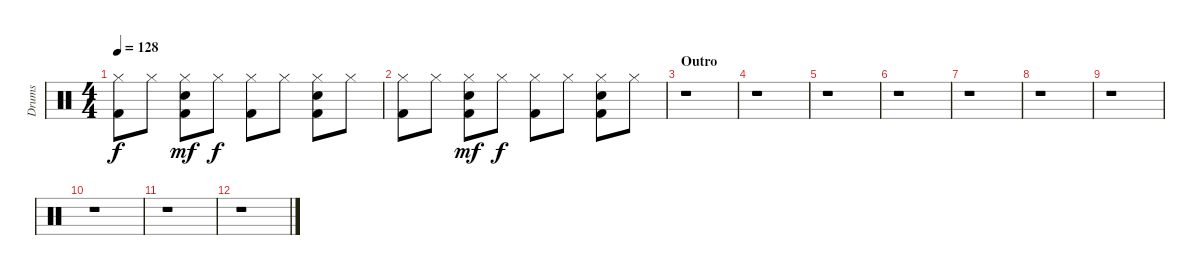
\track ("Drums" "Drums") {instrument percussion}
\staff {score}
\articulation defaults
\ts (4 4)
\tempo 128
\clef neutral
\ks c
("Kick (hit) 2" "Hi-Hat (closed)").8{dy f} "Hi-Hat (closed)".8 ("Kick (hit) 2" "Snare (hit) 2" "Hi-Hat (closed)").8{dy mf} "Hi-Hat (closed)".8{dy f} ("Kick (hit) 2" "Hi-Hat (closed)").8 "Hi-Hat (closed)".8 ("Kick (hit) 2" "Snare (hit) 2" "Hi-Hat (closed)").8 "Hi-Hat (closed)".8 |
("Kick (hit) 2" "Hi-Hat (closed)").8 "Hi-Hat (closed)".8 ("Kick (hit) 2" "Snare (hit) 2" "Hi-Hat (closed)").8{dy mf} "Hi-Hat (closed)".8{dy f} ("Kick (hit) 2" "Hi-Hat (closed)").8 "Hi-Hat (closed)".8 ("Kick (hit) 2" "Snare (hit) 2" "Hi-Hat (closed)").8 "Hi-Hat (closed)".8 |
\section ("" "Outro")
r.1 |
r.1 |
r.1 |
r.1 |
r.1 |
r.1 |
r.1 |
r.1 |
r.1 |
r.1
